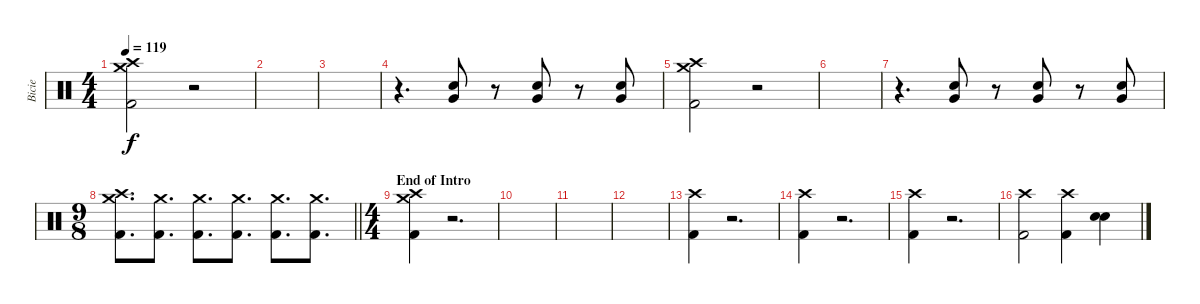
\track ("Bicie" "Bicie") {instrument percussion}
\staff {score}
\articulation defaults
\ts (4 4)
\tempo 119
\clef neutral
\ks c
("Crash high (hit)" "Crash medium (hit)" "Kick (hit) 2").2{dy f} r.2 |
|
|
r.4{d} ("Snare (hit) 2" "Very Low Tom (hit)").8 r.8 ("Snare (hit) 2" "Very Low Tom (hit)").8 r.8 ("Snare (hit) 2" "Very Low Tom (hit)").8 |
("Crash high (hit)" "Crash medium (hit)" "Kick (hit) 2").2 r.2 |
|
r.4{d} ("Snare (hit) 2" "Very Low Tom (hit)").8 r.8 ("Snare (hit) 2" "Very Low Tom (hit)").8 r.8 ("Snare (hit) 2" "Very Low Tom (hit)").8 |
\ts (9 8)
\barLineRight lightlight
("Crash high (hit)" "Crash medium (hit)" "Kick (hit) 2").8{d} ("Crash medium (hit)" "Kick (hit) 2").8{d} ("Crash medium (hit)" "Kick (hit) 2").8{d} ("Crash medium (hit)" "Kick (hit) 2").8{d} ("Crash medium (hit)" "Kick (hit) 2").8{d} ("Crash medium (hit)" "Kick (hit) 2").8{d} |
\ts (4 4)
\section ("" "End of Intro")
("Crash high (hit)" "Crash medium (hit)" "Kick (hit) 2").4 r.2{d} |
|
|
|
("Crash high (hit)" "Kick (hit) 2").4 r.2{d} |
("Crash high (hit)" "Kick (hit) 2").4 r.2{d} |
("Crash high (hit)" "Kick (hit) 2").4 r.2{d} |
("Crash high (hit)" "Kick (hit) 2").2 ("Crash high (hit)" "Kick (hit) 2").4 ("Snare (hit) 2" "Snare (hit) 2").4
